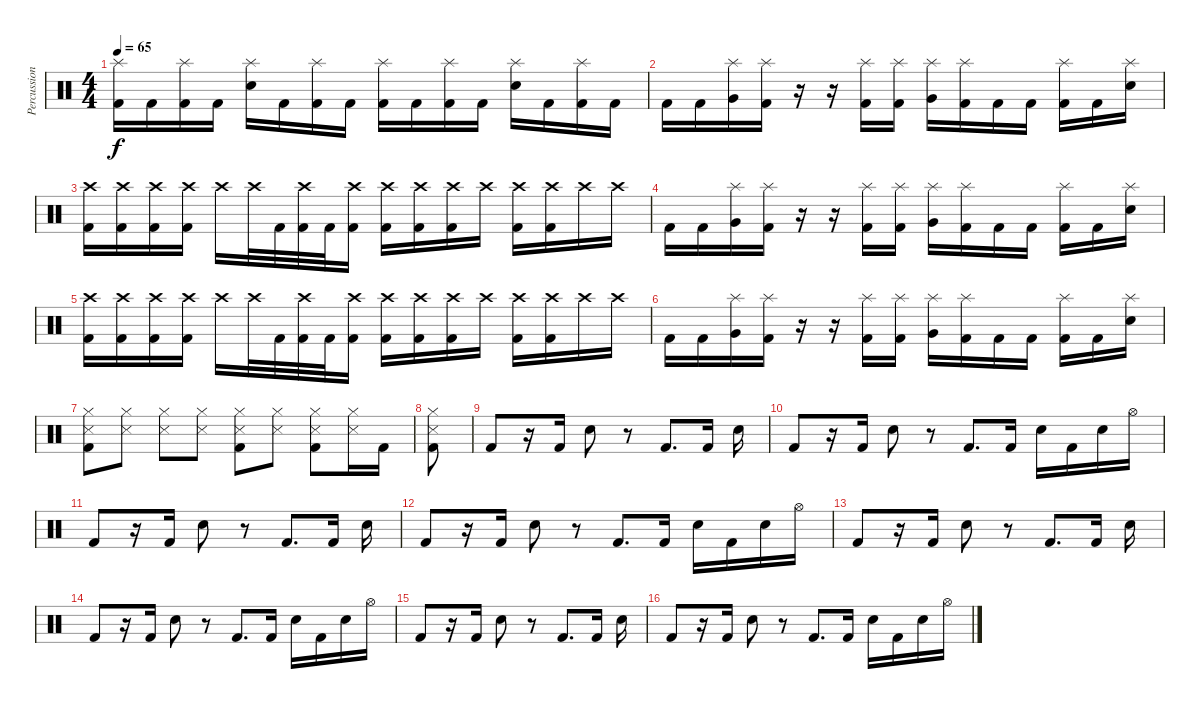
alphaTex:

\track ("Percussion" "Percussion") {instrument percussion}
\staff {score}
\articulation defaults
\ts (4 4)
\tempo 65
\clef neutral
\ks c
("Splash (hit)" "Kick (hit) 2").16{dy f} "Kick (hit) 2".16 ("Splash (hit)" "Kick (hit) 2").16 "Kick (hit) 2".16 ("Splash (hit)" "Snare (hit) 2").16 "Kick (hit) 2".16 ("Splash (hit)" "Kick (hit) 2").16 "Kick (hit) 2".16 ("Splash (hit)" "Kick (hit) 2").16 "Kick (hit) 2".16 ("Splash (hit)" "Kick (hit) 2").16 "Kick (hit) 2".16 ("Splash (hit)" "Snare (hit) 2").16 "Kick (hit) 2".16 ("Splash (hit)" "Kick (hit) 2").16 "Kick (hit) 2".16 |
"Kick (hit) 2".16 "Kick (hit) 2".16 ("Splash (hit)" "Very Low Tom (hit)").16 ("Splash (hit)" "Kick (hit) 2").16 r.16 r.16 ("Splash (hit)" "Kick (hit) 2").16 ("Splash (hit)" "Kick (hit) 2").16 ("Splash (hit)" "Very Low Tom (hit)").16 ("Splash (hit)" "Kick (hit) 2").16 "Kick (hit) 2".16 "Kick (hit) 2".16 ("Splash (hit)" "Kick (hit) 2").16 "Kick (hit) 2".16 ("Splash (hit)" "Snare (hit) 2").16 |
("Crash high (hit)" "Kick (hit) 2").16 ("Crash high (hit)" "Kick (hit) 2").16 ("Crash high (hit)" "Kick (hit) 2").16 ("Crash high (hit)" "Kick (hit) 2").16 "Crash high (hit)".16 "Crash high (hit)".32 "Kick (hit) 2".32 ("Crash high (hit)" "Kick (hit) 2").32 "Kick (hit) 2".32 ("Crash high (hit)" "Kick (hit) 2").16 ("Crash high (hit)" "Kick (hit) 2").16 ("Crash high (hit)" "Kick (hit) 2").16 ("Crash high (hit)" "Kick (hit) 2").16 "Crash high (hit)".16 ("Crash high (hit)" "Kick (hit) 2").16 ("Crash high (hit)" "Kick (hit) 2").16 "Crash high (hit)".16 "Crash high (hit)".16 |
"Kick (hit) 2".16 "Kick (hit) 2".16 ("Splash (hit)" "Very Low Tom (hit)").16 ("Splash (hit)" "Kick (hit) 2").16 r.16 r.16 ("Splash (hit)" "Kick (hit) 2").16 ("Splash (hit)" "Kick (hit) 2").16 ("Splash (hit)" "Very Low Tom (hit)").16 ("Splash (hit)" "Kick (hit) 2").16 "Kick (hit) 2".16 "Kick (hit) 2".16 ("Splash (hit)" "Kick (hit) 2").16 "Kick (hit) 2".16 ("Splash (hit)" "Snare (hit) 2").16 |
("Crash high (hit)" "Kick (hit) 2").16 ("Crash high (hit)" "Kick (hit) 2").16 ("Crash high (hit)" "Kick (hit) 2").16 ("Crash high (hit)" "Kick (hit) 2").16 "Crash high (hit)".16 "Crash high (hit)".32 "Kick (hit) 2".32 ("Crash high (hit)" "Kick (hit) 2").32 "Kick (hit) 2".32 ("Crash high (hit)" "Kick (hit) 2").16 ("Crash high (hit)" "Kick (hit) 2").16 ("Crash high (hit)" "Kick (hit) 2").16 ("Crash high (hit)" "Kick (hit) 2").16 "Crash high (hit)".16 ("Crash high (hit)" "Kick (hit) 2").16 ("Crash high (hit)" "Kick (hit) 2").16 "Crash high (hit)".16 "Crash high (hit)".16 |
"Kick (hit) 2".16 "Kick (hit) 2".16 ("Splash (hit)" "Very Low Tom (hit)").16 ("Splash (hit)" "Kick (hit) 2").16 r.16 r.16 ("Splash (hit)" "Kick (hit) 2").16 ("Splash (hit)" "Kick (hit) 2").16 ("Splash (hit)" "Very Low Tom (hit)").16 ("Splash (hit)" "Kick (hit) 2").16 "Kick (hit) 2".16 "Kick (hit) 2".16 ("Splash (hit)" "Kick (hit) 2").16 "Kick (hit) 2".16 ("Splash (hit)" "Snare (hit) 2").16 |
("Kick (hit) 2" "Metronome (hit)" "Hi-Hat (closed)").8 ("Metronome (hit)" "Hi-Hat (closed)").8 ("Metronome (hit)" "Hi-Hat (closed)").8 ("Metronome (hit)" "Hi-Hat (closed)").8 ("Kick (hit) 2" "Metronome (hit)" "Hi-Hat (closed)").8 ("Metronome (hit)" "Hi-Hat (closed)").8 ("Kick (hit) 2" "Metronome (hit)" "Hi-Hat (closed)").8 ("Metronome (hit)" "Hi-Hat (closed)").16 "Kick (hit) 2".16 |
("Kick (hit) 2" "Metronome (hit)" "Hi-Hat (closed)").8 |
"Kick (hit) 2".8 r.16 "Kick (hit) 2".16 "Snare (hit) 2".8 r.8 "Kick (hit) 2".8{d} "Kick (hit) 2".16 "Snare (hit) 2".16 |
"Kick (hit) 2".8 r.16 "Kick (hit) 2".16 "Snare (hit) 2".8 r.8 "Kick (hit) 2".8{d} "Kick (hit) 2".16 "Snare (hit) 2".16 "Kick (hit) 2".16 "Snare (hit) 2".16 "Hi-Hat (open)".16 |
"Kick (hit) 2".8 r.16 "Kick (hit) 2".16 "Snare (hit) 2".8 r.8 "Kick (hit) 2".8{d} "Kick (hit) 2".16 "Snare (hit) 2".16 |
"Kick (hit) 2".8 r.16 "Kick (hit) 2".16 "Snare (hit) 2".8 r.8 "Kick (hit) 2".8{d} "Kick (hit) 2".16 "Snare (hit) 2".16 "Kick (hit) 2".16 "Snare (hit) 2".16 "Hi-Hat (open)".16 |
"Kick (hit) 2".8 r.16 "Kick (hit) 2".16 "Snare (hit) 2".8 r.8 "Kick (hit) 2".8{d} "Kick (hit) 2".16 "Snare (hit) 2".16 |
"Kick (hit) 2".8 r.16 "Kick (hit) 2".16 "Snare (hit) 2".8 r.8 "Kick (hit) 2".8{d} "Kick (hit) 2".16 "Snare (hit) 2".16 "Kick (hit) 2".16 "Snare (hit) 2".16 "Hi-Hat (open)".16 |
"Kick (hit) 2".8 r.16 "Kick (hit) 2".16 "Snare (hit) 2".8 r.8 "Kick (hit) 2".8{d} "Kick (hit) 2".16 "Snare (hit) 2".16 |
"Kick (hit) 2".8 r.16 "Kick (hit) 2".16 "Snare (hit) 2".8 r.8 "Kick (hit) 2".8{d} "Kick (hit) 2".16 "Snare (hit) 2".16 "Kick (hit) 2".16 "Snare (hit) 2".16 "Hi-Hat (open)".16
